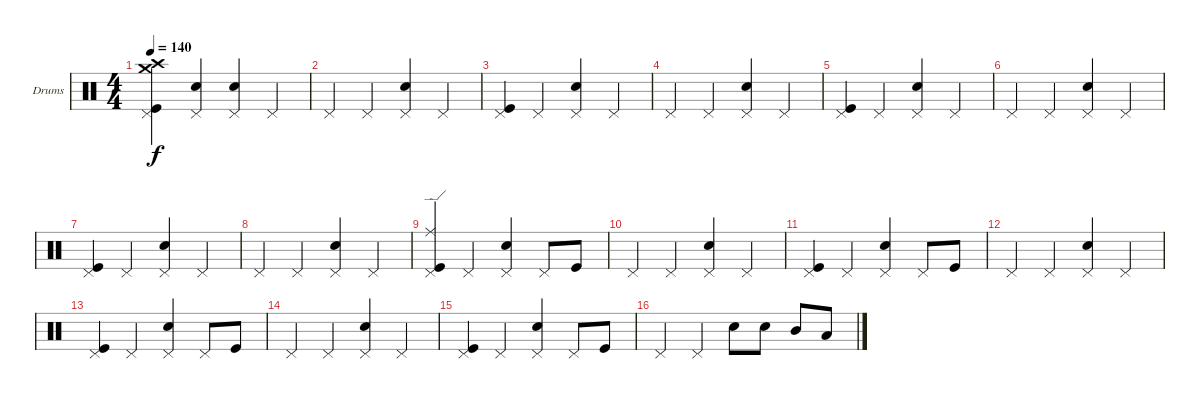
\bracketExtendMode groupsimilarinstruments
\firstSystemTrackNameOrientation horizontal
\otherSystemsTrackNameOrientation horizontal
\track ("Drumkit" "Drums") {instrument percussion}
\staff {score}
\articulation defaults
\ts (4 4)
\tempo 140
\clef neutral
\ks c
("Crash high (hit)" "Pedal Hi-Hat (hit)" "Crash medium (hit)" "Kick (hit)").4{dy f} ("Pedal Hi-Hat (hit)" "Snare (hit) 2").4 ("Pedal Hi-Hat (hit)" "Snare (hit) 2").4 "Pedal Hi-Hat (hit)".4 |
"Pedal Hi-Hat (hit)".4 "Pedal Hi-Hat (hit)".4 ("Pedal Hi-Hat (hit)" "Snare (hit) 2").4 "Pedal Hi-Hat (hit)".4 |
("Pedal Hi-Hat (hit)" "Kick (hit)").4 "Pedal Hi-Hat (hit)".4 ("Pedal Hi-Hat (hit)" "Snare (hit) 2").4 "Pedal Hi-Hat (hit)".4 |
"Pedal Hi-Hat (hit)".4 "Pedal Hi-Hat (hit)".4 ("Pedal Hi-Hat (hit)" "Snare (hit) 2").4 "Pedal Hi-Hat (hit)".4 |
("Pedal Hi-Hat (hit)" "Kick (hit)").4 "Pedal Hi-Hat (hit)".4 ("Pedal Hi-Hat (hit)" "Snare (hit) 2").4 "Pedal Hi-Hat (hit)".4 |
"Pedal Hi-Hat (hit)".4 "Pedal Hi-Hat (hit)".4 ("Pedal Hi-Hat (hit)" "Snare (hit) 2").4 "Pedal Hi-Hat (hit)".4 |
("Pedal Hi-Hat (hit)" "Kick (hit)").4 "Pedal Hi-Hat (hit)".4 ("Pedal Hi-Hat (hit)" "Snare (hit) 2").4 "Pedal Hi-Hat (hit)".4 |
"Pedal Hi-Hat (hit)".4 "Pedal Hi-Hat (hit)".4 ("Pedal Hi-Hat (hit)" "Snare (hit) 2").4 "Pedal Hi-Hat (hit)".4 |
("Ride (edge)" "Pedal Hi-Hat (hit)" "Kick (hit)").4 "Pedal Hi-Hat (hit)".4 ("Pedal Hi-Hat (hit)" "Snare (hit) 2").4 "Pedal Hi-Hat (hit)".8 "Kick (hit)".8 |
"Pedal Hi-Hat (hit)".4 "Pedal Hi-Hat (hit)".4 ("Pedal Hi-Hat (hit)" "Snare (hit) 2").4 "Pedal Hi-Hat (hit)".4 |
("Pedal Hi-Hat (hit)" "Kick (hit)").4 "Pedal Hi-Hat (hit)".4 ("Pedal Hi-Hat (hit)" "Snare (hit) 2").4 "Pedal Hi-Hat (hit)".8 "Kick (hit)".8 |
"Pedal Hi-Hat (hit)".4 "Pedal Hi-Hat (hit)".4 ("Pedal Hi-Hat (hit)" "Snare (hit) 2").4 "Pedal Hi-Hat (hit)".4 |
("Pedal Hi-Hat (hit)" "Kick (hit)").4 "Pedal Hi-Hat (hit)".4 ("Pedal Hi-Hat (hit)" "Snare (hit) 2").4 "Pedal Hi-Hat (hit)".8 "Kick (hit)".8 |
"Pedal Hi-Hat (hit)".4 "Pedal Hi-Hat (hit)".4 ("Pedal Hi-Hat (hit)" "Snare (hit) 2").4 "Pedal Hi-Hat (hit)".4 |
("Pedal Hi-Hat (hit)" "Kick (hit)").4 "Pedal Hi-Hat (hit)".4 ("Pedal Hi-Hat (hit)" "Snare (hit) 2").4 "Pedal Hi-Hat (hit)".8 "Kick (hit)".8 |
"Pedal Hi-Hat (hit)".4 "Pedal Hi-Hat (hit)".4 "Snare (hit) 2".8 "Snare (hit) 2".8 "Mid Tom (hit)".8 "Low Tom (hit)".8
